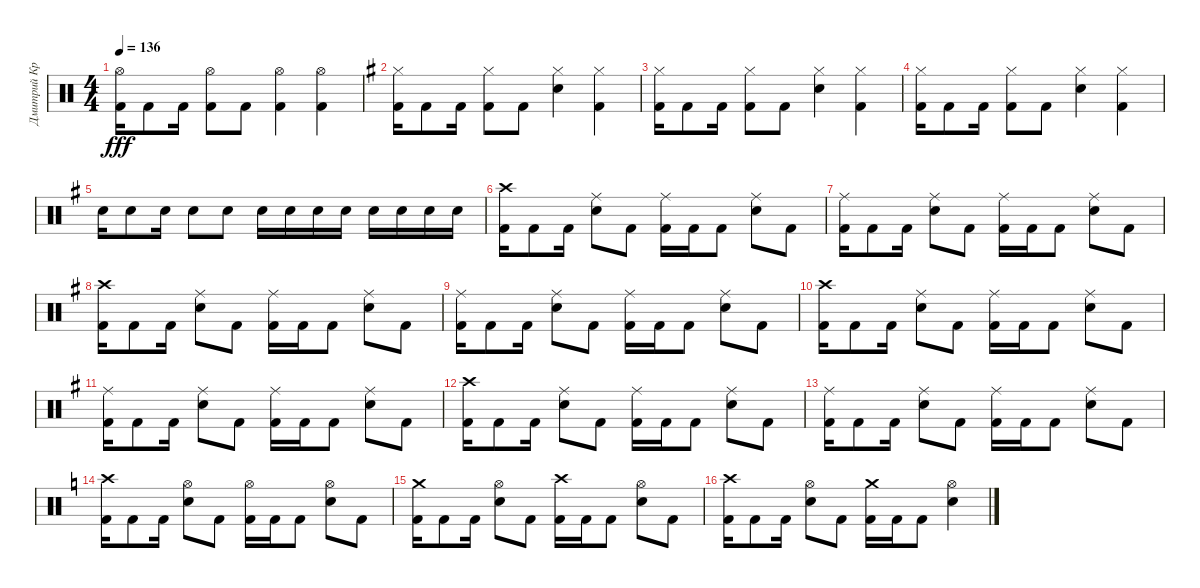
\track ("Дмитрий Кривенков" "Дмитрий Кр") {instrument percussion}
\staff {score}
\articulation defaults
\ts (4 4)
\tempo 136
\clef neutral
\ks c
("Hi-Hat (open)" "Kick (hit) 2").16{dy fff} "Kick (hit) 2".8 "Kick (hit) 2".16 ("Hi-Hat (open)" "Kick (hit) 2").8 "Kick (hit) 2".8 ("Hi-Hat (open)" "Kick (hit) 2").4 ("Hi-Hat (open)" "Kick (hit) 2").4 |
\ks g
("Hi-Hat (closed)" "Kick (hit) 2").16{volume 16} "Kick (hit) 2".8 "Kick (hit) 2".16 ("Hi-Hat (closed)" "Kick (hit) 2").8 "Kick (hit) 2".8 ("Hi-Hat (closed)" "Electric Snare (hit)").4 ("Hi-Hat (closed)" "Kick (hit) 2").4 |
("Hi-Hat (closed)" "Kick (hit) 2").16 "Kick (hit) 2".8 "Kick (hit) 2".16 ("Hi-Hat (closed)" "Kick (hit) 2").8 "Kick (hit) 2".8 ("Hi-Hat (closed)" "Electric Snare (hit)").4 ("Hi-Hat (closed)" "Kick (hit) 2").4 |
("Hi-Hat (closed)" "Kick (hit) 2").16 "Kick (hit) 2".8 "Kick (hit) 2".16 ("Hi-Hat (closed)" "Kick (hit) 2").8 "Kick (hit) 2".8 ("Hi-Hat (closed)" "Electric Snare (hit)").4 ("Hi-Hat (closed)" "Kick (hit) 2").4 |
"Electric Snare (hit)".16 "Electric Snare (hit)".8 "Electric Snare (hit)".16 "Electric Snare (hit)".8 "Electric Snare (hit)".8 "Electric Snare (hit)".16 "Electric Snare (hit)".16 "Electric Snare (hit)".16 "Electric Snare (hit)".16 "Electric Snare (hit)".16 "Electric Snare (hit)".16 "Electric Snare (hit)".16 "Electric Snare (hit)".16 |
("Crash high (hit)" "Kick (hit) 2").16 "Kick (hit) 2".8 "Kick (hit) 2".16 ("Ride (middle)" "Electric Snare (hit)").8 "Kick (hit) 2".8 ("Ride (middle)" "Kick (hit) 2").16 "Kick (hit) 2".16 "Kick (hit) 2".8 ("Ride (middle)" "Electric Snare (hit)").8 "Kick (hit) 2".8 |
("Ride (middle)" "Kick (hit) 2").16 "Kick (hit) 2".8 "Kick (hit) 2".16 ("Ride (middle)" "Electric Snare (hit)").8 "Kick (hit) 2".8 ("Ride (middle)" "Kick (hit) 2").16 "Kick (hit) 2".16 "Kick (hit) 2".8 ("Ride (middle)" "Electric Snare (hit)").8 "Kick (hit) 2".8 |
("Crash high (hit)" "Kick (hit) 2").16 "Kick (hit) 2".8 "Kick (hit) 2".16 ("Ride (middle)" "Electric Snare (hit)").8 "Kick (hit) 2".8 ("Ride (middle)" "Kick (hit) 2").16 "Kick (hit) 2".16 "Kick (hit) 2".8 ("Ride (middle)" "Electric Snare (hit)").8 "Kick (hit) 2".8 |
("Ride (middle)" "Kick (hit) 2").16 "Kick (hit) 2".8 "Kick (hit) 2".16 ("Ride (middle)" "Electric Snare (hit)").8 "Kick (hit) 2".8 ("Ride (middle)" "Kick (hit) 2").16 "Kick (hit) 2".16 "Kick (hit) 2".8 ("Ride (middle)" "Electric Snare (hit)").8 "Kick (hit) 2".8 |
("Crash high (hit)" "Kick (hit) 2").16 "Kick (hit) 2".8 "Kick (hit) 2".16 ("Ride (middle)" "Electric Snare (hit)").8 "Kick (hit) 2".8 ("Ride (middle)" "Kick (hit) 2").16 "Kick (hit) 2".16 "Kick (hit) 2".8 ("Ride (middle)" "Electric Snare (hit)").8 "Kick (hit) 2".8 |
("Ride (middle)" "Kick (hit) 2").16 "Kick (hit) 2".8 "Kick (hit) 2".16 ("Ride (middle)" "Electric Snare (hit)").8 "Kick (hit) 2".8 ("Ride (middle)" "Kick (hit) 2").16 "Kick (hit) 2".16 "Kick (hit) 2".8 ("Ride (middle)" "Electric Snare (hit)").8 "Kick (hit) 2".8 |
("Crash high (hit)" "Kick (hit) 2").16 "Kick (hit) 2".8 "Kick (hit) 2".16 ("Ride (middle)" "Electric Snare (hit)").8 "Kick (hit) 2".8 ("Ride (middle)" "Kick (hit) 2").16 "Kick (hit) 2".16 "Kick (hit) 2".8 ("Ride (middle)" "Electric Snare (hit)").8 "Kick (hit) 2".8 |
("Ride (middle)" "Kick (hit) 2").16 "Kick (hit) 2".8 "Kick (hit) 2".16 ("Ride (middle)" "Electric Snare (hit)").8 "Kick (hit) 2".8 ("Ride (middle)" "Kick (hit) 2").16 "Kick (hit) 2".16 "Kick (hit) 2".8 ("Ride (middle)" "Electric Snare (hit)").8 "Kick (hit) 2".8 |
\ks c
("Crash high (hit)" "Kick (hit) 2").16 "Kick (hit) 2".8 "Kick (hit) 2".16 ("Hi-Hat (open)" "Electric Snare (hit)").8 "Kick (hit) 2".8 ("Hi-Hat (open)" "Kick (hit) 2").16 "Kick (hit) 2".16 "Kick (hit) 2".8 ("Hi-Hat (open)" "Electric Snare (hit)").8 "Kick (hit) 2".8 |
("Kick (hit) 2" "Crash medium (hit)").16 "Kick (hit) 2".8 "Kick (hit) 2".16 ("Hi-Hat (open)" "Electric Snare (hit)").8 "Kick (hit) 2".8 ("Kick (hit) 2" "Crash high (hit)").16 "Kick (hit) 2".16 "Kick (hit) 2".8 ("Hi-Hat (open)" "Electric Snare (hit)").8 "Kick (hit) 2".8 |
("Kick (hit) 2" "Crash high (hit)").16 "Kick (hit) 2".8 "Kick (hit) 2".16 ("Electric Snare (hit)" "Hi-Hat (open)").8 "Kick (hit) 2".8 ("Kick (hit) 2" "Crash medium (hit)").16 "Kick (hit) 2".16 "Kick (hit) 2".8 ("Electric Snare (hit)" "Hi-Hat (open)").4
